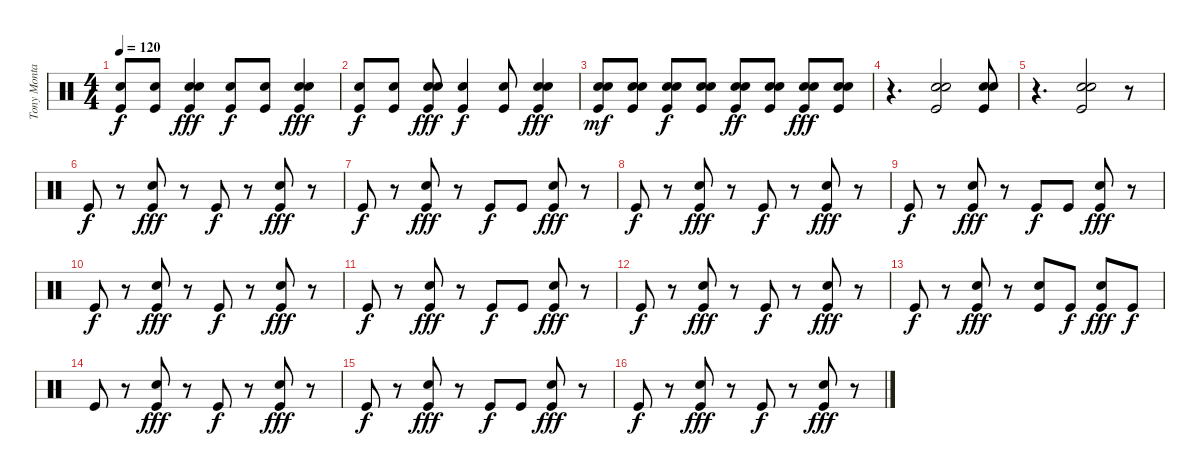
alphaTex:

\track ("Tony Montana" "Tony Monta") {instrument percussion}
\staff {score}
\articulation defaults
\ts (4 4)
\tempo 120
\clef neutral
\ks c
("Kick (hit)" "Snare (hit) 2").8{dy f} ("Kick (hit)" "Snare (hit) 2").8 ("Kick (hit)" "Snare (hit) 2" "Snare (hit) 2").4{dy fff} ("Kick (hit)" "Snare (hit) 2").8{dy f} ("Kick (hit)" "Snare (hit) 2").8 ("Kick (hit)" "Snare (hit) 2" "Snare (hit) 2").4{dy fff} |
("Kick (hit)" "Snare (hit) 2").8{dy f} ("Kick (hit)" "Snare (hit) 2").8 ("Kick (hit)" "Snare (hit) 2" "Snare (hit) 2").8{dy fff} ("Kick (hit)" "Snare (hit) 2").4{dy f} ("Kick (hit)" "Snare (hit) 2").8 ("Kick (hit)" "Snare (hit) 2" "Snare (hit) 2").4{dy fff} |
("Kick (hit)" "Snare (hit) 2" "Snare (hit) 2").8{dy mf} ("Kick (hit)" "Snare (hit) 2" "Snare (hit) 2").8 ("Kick (hit)" "Snare (hit) 2" "Snare (hit) 2").8{dy f} ("Kick (hit)" "Snare (hit) 2" "Snare (hit) 2").8 ("Kick (hit)" "Snare (hit) 2" "Snare (hit) 2").8{dy ff} ("Kick (hit)" "Snare (hit) 2" "Snare (hit) 2").8 ("Kick (hit)" "Snare (hit) 2" "Snare (hit) 2").8{dy fff} ("Kick (hit)" "Snare (hit) 2" "Snare (hit) 2").8 |
r.4{d} ("Kick (hit)" "Snare (hit) 2" "Snare (hit) 2").2 ("Kick (hit)" "Snare (hit) 2" "Snare (hit) 2").8 |
r.4{d} ("Kick (hit)" "Snare (hit) 2" "Snare (hit) 2").2 r.8 |
"Kick (hit)".8{dy f} r.8 ("Kick (hit)" "Snare (hit) 2").8{dy fff} r.8 "Kick (hit)".8{dy f} r.8 ("Kick (hit)" "Snare (hit) 2").8{dy fff} r.8 |
"Kick (hit)".8{dy f} r.8 ("Kick (hit)" "Snare (hit) 2").8{dy fff} r.8 "Kick (hit)".8{dy f} "Kick (hit)".8 ("Kick (hit)" "Snare (hit) 2").8{dy fff} r.8 |
"Kick (hit)".8{dy f} r.8 ("Kick (hit)" "Snare (hit) 2").8{dy fff} r.8 "Kick (hit)".8{dy f} r.8 ("Kick (hit)" "Snare (hit) 2").8{dy fff} r.8 |
"Kick (hit)".8{dy f} r.8 ("Kick (hit)" "Snare (hit) 2").8{dy fff} r.8 "Kick (hit)".8{dy f} "Kick (hit)".8 ("Kick (hit)" "Snare (hit) 2").8{dy fff} r.8 |
"Kick (hit)".8{dy f} r.8 ("Kick (hit)" "Snare (hit) 2").8{dy fff} r.8 "Kick (hit)".8{dy f} r.8 ("Kick (hit)" "Snare (hit) 2").8{dy fff} r.8 |
"Kick (hit)".8{dy f} r.8 ("Kick (hit)" "Snare (hit) 2").8{dy fff} r.8 "Kick (hit)".8{dy f} "Kick (hit)".8 ("Kick (hit)" "Snare (hit) 2").8{dy fff} r.8 |
"Kick (hit)".8{dy f} r.8 ("Kick (hit)" "Snare (hit) 2").8{dy fff} r.8 "Kick (hit)".8{dy f} r.8 ("Kick (hit)" "Snare (hit) 2").8{dy fff} r.8 |
"Kick (hit)".8{dy f} r.8 ("Kick (hit)" "Snare (hit) 2").8{dy fff} r.8 ("Kick (hit)" "Snare (hit) 2").8 "Kick (hit)".8{dy f} ("Kick (hit)" "Snare (hit) 2").8{dy fff} "Kick (hit)".8{dy f} |
"Kick (hit)".8 r.8 ("Kick (hit)" "Snare (hit) 2").8{dy fff} r.8 "Kick (hit)".8{dy f} r.8 ("Kick (hit)" "Snare (hit) 2").8{dy fff} r.8 |
"Kick (hit)".8{dy f} r.8 ("Kick (hit)" "Snare (hit) 2").8{dy fff} r.8 "Kick (hit)".8{dy f} "Kick (hit)".8 ("Kick (hit)" "Snare (hit) 2").8{dy fff} r.8 |
"Kick (hit)".8{dy f} r.8 ("Kick (hit)" "Snare (hit) 2").8{dy fff} r.8 "Kick (hit)".8{dy f} r.8 ("Kick (hit)" "Snare (hit) 2").8{dy fff} r.8
